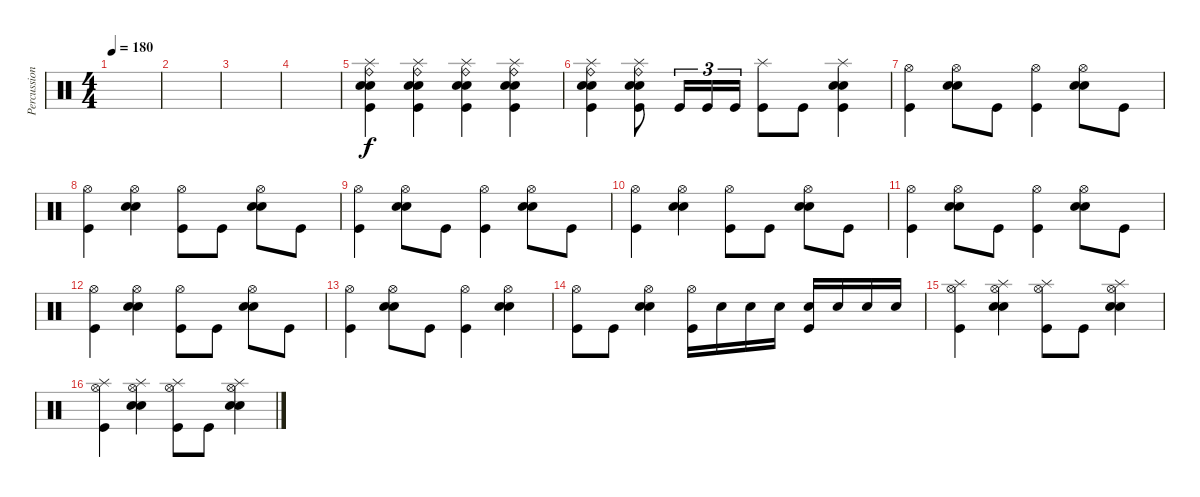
\track ("Percussion" "Percussion") {instrument percussion}
\staff {score}
\articulation defaults
\ts (4 4)
\tempo 180
\clef neutral
\ks c
|
|
|
|
("Ride (bell)" "Splash (hit)" "Snare (hit) 2" "Electric Snare (hit)" "Kick (hit)").4 ("Ride (bell)" "Splash (hit)" "Snare (hit) 2" "Electric Snare (hit)" "Kick (hit)").4 ("Ride (bell)" "Splash (hit)" "Snare (hit) 2" "Electric Snare (hit)" "Kick (hit)").4 ("Ride (bell)" "Splash (hit)" "Snare (hit) 2" "Electric Snare (hit)" "Kick (hit)").4 |
("Ride (bell)" "Splash (hit)" "Snare (hit) 2" "Electric Snare (hit)" "Kick (hit)").4 ("Ride (bell)" "Splash (hit)" "Snare (hit) 2" "Electric Snare (hit)" "Kick (hit)").8{dy f} "Kick (hit)".16{tu (3 2)} "Kick (hit)".16{tu (3 2)} "Kick (hit)".16{tu (3 2)} ("Splash (hit)" "Kick (hit)").8 "Kick (hit)".8 ("Splash (hit)" "Snare (hit) 2" "Electric Snare (hit)" "Kick (hit)").4 |
("Hi-Hat (open)" "Kick (hit)").4 ("Hi-Hat (open)" "Snare (hit) 2" "Electric Snare (hit)").8 "Kick (hit)".8 ("Hi-Hat (open)" "Kick (hit)").4 ("Hi-Hat (open)" "Snare (hit) 2" "Electric Snare (hit)").8 "Kick (hit)".8 |
("Hi-Hat (open)" "Kick (hit)").4 ("Hi-Hat (open)" "Snare (hit) 2" "Electric Snare (hit)").4 ("Hi-Hat (open)" "Kick (hit)").8 "Kick (hit)".8 ("Hi-Hat (open)" "Snare (hit) 2" "Electric Snare (hit)").8 "Kick (hit)".8 |
("Hi-Hat (open)" "Kick (hit)").4 ("Hi-Hat (open)" "Snare (hit) 2" "Electric Snare (hit)").8 "Kick (hit)".8 ("Hi-Hat (open)" "Kick (hit)").4 ("Hi-Hat (open)" "Snare (hit) 2" "Electric Snare (hit)").8 "Kick (hit)".8 |
("Hi-Hat (open)" "Kick (hit)").4 ("Hi-Hat (open)" "Snare (hit) 2" "Electric Snare (hit)").4 ("Hi-Hat (open)" "Kick (hit)").8 "Kick (hit)".8 ("Hi-Hat (open)" "Snare (hit) 2" "Electric Snare (hit)").8 "Kick (hit)".8 |
("Hi-Hat (open)" "Kick (hit)").4 ("Hi-Hat (open)" "Snare (hit) 2" "Electric Snare (hit)").8 "Kick (hit)".8 ("Hi-Hat (open)" "Kick (hit)").4 ("Hi-Hat (open)" "Snare (hit) 2" "Electric Snare (hit)").8 "Kick (hit)".8 |
("Hi-Hat (open)" "Kick (hit)").4 ("Hi-Hat (open)" "Snare (hit) 2" "Electric Snare (hit)").4 ("Hi-Hat (open)" "Kick (hit)").8 "Kick (hit)".8 ("Hi-Hat (open)" "Snare (hit) 2" "Electric Snare (hit)").8 "Kick (hit)".8 |
("Hi-Hat (open)" "Kick (hit)").4 ("Hi-Hat (open)" "Snare (hit) 2" "Electric Snare (hit)").8 "Kick (hit)".8 ("Hi-Hat (open)" "Kick (hit)").4 ("Hi-Hat (open)" "Snare (hit) 2" "Electric Snare (hit)").4 |
("Hi-Hat (open)" "Kick (hit)").8 "Kick (hit)".8 ("Hi-Hat (open)" "Snare (hit) 2" "Electric Snare (hit)").4 ("Hi-Hat (open)" "Kick (hit)").16 "Snare (hit) 2".16 "Snare (hit) 2".16 "Snare (hit) 2".16 ("Snare (hit) 2" "Kick (hit)").16 "Snare (hit) 2".16 "Snare (hit) 2".16 "Snare (hit) 2".16 |
("Splash (hit)" "Hi-Hat (open)" "Kick (hit)").4 ("Splash (hit)" "Hi-Hat (open)" "Snare (hit) 2" "Electric Snare (hit)").4 ("Splash (hit)" "Hi-Hat (open)" "Kick (hit)").8 "Kick (hit)".8 ("Splash (hit)" "Hi-Hat (open)" "Snare (hit) 2" "Electric Snare (hit)").4 |
("Splash (hit)" "Hi-Hat (open)" "Kick (hit)").4 ("Splash (hit)" "Hi-Hat (open)" "Snare (hit) 2" "Electric Snare (hit)").4 ("Splash (hit)" "Hi-Hat (open)" "Kick (hit)").8 "Kick (hit)".8 ("Splash (hit)" "Hi-Hat (open)" "Snare (hit) 2" "Electric Snare (hit)").4
